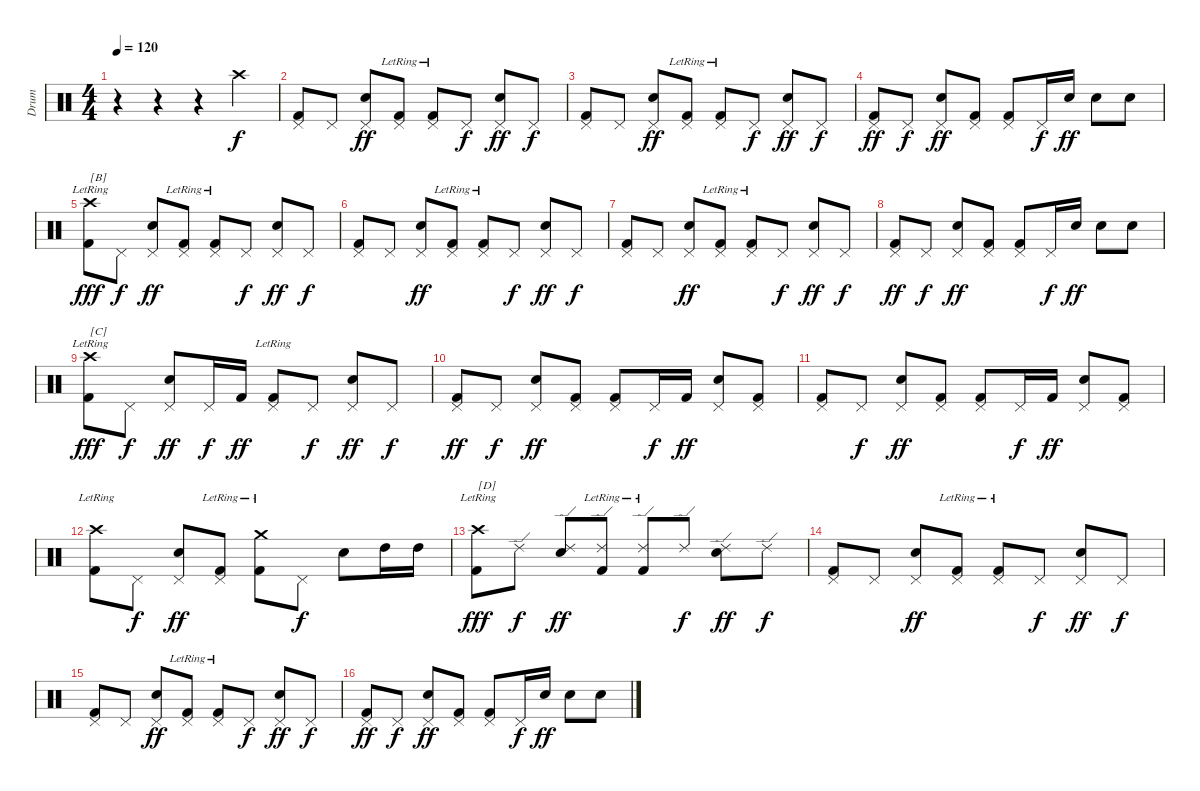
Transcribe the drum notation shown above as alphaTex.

\track ("Drum" "Drum") {instrument percussion}
\staff {score}
\articulation defaults
\ts (4 4)
\tempo 120
\clef neutral
\ks c
r.4{dy f} r.4 r.4 "Crash high (hit)".4 |
("Pedal Hi-Hat (hit)" "Kick (hit) 2").8 "Pedal Hi-Hat (hit)".8 ("Pedal Hi-Hat (hit)" "Snare (hit) 2").8{dy ff} ("Pedal Hi-Hat (hit)" "Kick (hit) 2"{lr}).8 ("Pedal Hi-Hat (hit)" "Kick (hit) 2"{lr}).8 "Pedal Hi-Hat (hit)".8{dy f} ("Pedal Hi-Hat (hit)" "Snare (hit) 2").8{dy ff} "Pedal Hi-Hat (hit)".8{dy f} |
("Pedal Hi-Hat (hit)" "Kick (hit) 2").8 "Pedal Hi-Hat (hit)".8 ("Pedal Hi-Hat (hit)" "Snare (hit) 2").8{dy ff} ("Pedal Hi-Hat (hit)" "Kick (hit) 2"{lr}).8 ("Pedal Hi-Hat (hit)" "Kick (hit) 2"{lr}).8 "Pedal Hi-Hat (hit)".8{dy f} ("Pedal Hi-Hat (hit)" "Snare (hit) 2").8{dy ff} "Pedal Hi-Hat (hit)".8{dy f} |
("Pedal Hi-Hat (hit)" "Kick (hit) 2").8{dy ff} "Pedal Hi-Hat (hit)".8{dy f} ("Pedal Hi-Hat (hit)" "Snare (hit) 2").8{dy ff} ("Pedal Hi-Hat (hit)" "Kick (hit) 2").8 ("Pedal Hi-Hat (hit)" "Kick (hit) 2").8 "Pedal Hi-Hat (hit)".16{dy f} "Snare (hit) 2".16{dy ff} "Snare (hit) 2".8 "Snare (hit) 2".8 |
("Crash high (hit)"{lr} "Kick (hit) 2"{lr}).8{txt "[B]" dy fff} "Pedal Hi-Hat (hit)".8{dy f} ("Pedal Hi-Hat (hit)" "Snare (hit) 2").8{dy ff} ("Pedal Hi-Hat (hit)" "Kick (hit) 2"{lr}).8 ("Pedal Hi-Hat (hit)" "Kick (hit) 2"{lr}).8 "Pedal Hi-Hat (hit)".8{dy f} ("Pedal Hi-Hat (hit)" "Snare (hit) 2").8{dy ff} "Pedal Hi-Hat (hit)".8{dy f} |
("Pedal Hi-Hat (hit)" "Kick (hit) 2").8 "Pedal Hi-Hat (hit)".8 ("Pedal Hi-Hat (hit)" "Snare (hit) 2").8{dy ff} ("Pedal Hi-Hat (hit)" "Kick (hit) 2"{lr}).8 ("Pedal Hi-Hat (hit)" "Kick (hit) 2"{lr}).8 "Pedal Hi-Hat (hit)".8{dy f} ("Pedal Hi-Hat (hit)" "Snare (hit) 2").8{dy ff} "Pedal Hi-Hat (hit)".8{dy f} |
("Pedal Hi-Hat (hit)" "Kick (hit) 2").8 "Pedal Hi-Hat (hit)".8 ("Pedal Hi-Hat (hit)" "Snare (hit) 2").8{dy ff} ("Pedal Hi-Hat (hit)" "Kick (hit) 2"{lr}).8 ("Pedal Hi-Hat (hit)" "Kick (hit) 2"{lr}).8 "Pedal Hi-Hat (hit)".8{dy f} ("Pedal Hi-Hat (hit)" "Snare (hit) 2").8{dy ff} "Pedal Hi-Hat (hit)".8{dy f} |
("Pedal Hi-Hat (hit)" "Kick (hit) 2").8{dy ff} "Pedal Hi-Hat (hit)".8{dy f} ("Pedal Hi-Hat (hit)" "Snare (hit) 2").8{dy ff} ("Pedal Hi-Hat (hit)" "Kick (hit) 2").8 ("Pedal Hi-Hat (hit)" "Kick (hit) 2").8 "Pedal Hi-Hat (hit)".16{dy f} "Snare (hit) 2".16{dy ff} "Snare (hit) 2".8 "Snare (hit) 2".8 |
("Crash high (hit)"{lr} "Kick (hit) 2"{lr}).8{txt "[C]" dy fff} "Pedal Hi-Hat (hit)".8{dy f} ("Pedal Hi-Hat (hit)" "Snare (hit) 2").8{dy ff} "Pedal Hi-Hat (hit)".16{dy f} "Kick (hit) 2".16{dy ff} ("Pedal Hi-Hat (hit)" "Kick (hit) 2"{lr}).8 "Pedal Hi-Hat (hit)".8{dy f} ("Pedal Hi-Hat (hit)" "Snare (hit) 2").8{dy ff} "Pedal Hi-Hat (hit)".8{dy f} |
("Pedal Hi-Hat (hit)" "Kick (hit) 2").8{dy ff} "Pedal Hi-Hat (hit)".8{dy f} ("Pedal Hi-Hat (hit)" "Snare (hit) 2").8{dy ff} ("Pedal Hi-Hat (hit)" "Kick (hit) 2").8 ("Pedal Hi-Hat (hit)" "Kick (hit) 2").8 "Pedal Hi-Hat (hit)".16{dy f} "Kick (hit) 2".16{dy ff} ("Pedal Hi-Hat (hit)" "Snare (hit) 2").8 ("Pedal Hi-Hat (hit)" "Kick (hit) 2").8 |
("Pedal Hi-Hat (hit)" "Kick (hit) 2").8 "Pedal Hi-Hat (hit)".8{dy f} ("Pedal Hi-Hat (hit)" "Snare (hit) 2").8{dy ff} ("Pedal Hi-Hat (hit)" "Kick (hit) 2").8 ("Pedal Hi-Hat (hit)" "Kick (hit) 2").8 "Pedal Hi-Hat (hit)".16{dy f} "Kick (hit) 2".16{dy ff} ("Pedal Hi-Hat (hit)" "Snare (hit) 2").8 ("Pedal Hi-Hat (hit)" "Kick (hit) 2").8 |
("Crash high (hit)" "Kick (hit) 2"{lr}).8 "Pedal Hi-Hat (hit)".8{dy f} ("Pedal Hi-Hat (hit)" "Snare (hit) 2").8{dy ff} ("Pedal Hi-Hat (hit)" "Kick (hit) 2"{lr}).8 ("Crash medium (hit)" "Kick (hit) 2"{lr}).8 "Pedal Hi-Hat (hit)".8{dy f} "Snare (hit) 2".8 "High Tom (hit)".16 "High Tom (hit)".16 |
("Crash high (hit)"{lr} "Kick (hit) 2"{lr}).8{txt "[D]" dy fff} "Ride (edge) 2".8{dy f} ("Ride (edge) 2" "Snare (hit) 2").8{dy ff} ("Ride (edge) 2" "Kick (hit) 2"{lr}).8 ("Ride (edge) 2" "Kick (hit) 2"{lr}).8 "Ride (edge) 2".8{dy f} ("Ride (edge) 2" "Snare (hit) 2").8{dy ff} "Ride (edge) 2".8{dy f} |
("Pedal Hi-Hat (hit)" "Kick (hit) 2").8 "Pedal Hi-Hat (hit)".8 ("Pedal Hi-Hat (hit)" "Snare (hit) 2").8{dy ff} ("Pedal Hi-Hat (hit)" "Kick (hit) 2"{lr}).8 ("Pedal Hi-Hat (hit)" "Kick (hit) 2"{lr}).8 "Pedal Hi-Hat (hit)".8{dy f} ("Pedal Hi-Hat (hit)" "Snare (hit) 2").8{dy ff} "Pedal Hi-Hat (hit)".8{dy f} |
("Pedal Hi-Hat (hit)" "Kick (hit) 2").8 "Pedal Hi-Hat (hit)".8 ("Pedal Hi-Hat (hit)" "Snare (hit) 2").8{dy ff} ("Pedal Hi-Hat (hit)" "Kick (hit) 2"{lr}).8 ("Pedal Hi-Hat (hit)" "Kick (hit) 2"{lr}).8 "Pedal Hi-Hat (hit)".8{dy f} ("Pedal Hi-Hat (hit)" "Snare (hit) 2").8{dy ff} "Pedal Hi-Hat (hit)".8{dy f} |
("Pedal Hi-Hat (hit)" "Kick (hit) 2").8{dy ff} "Pedal Hi-Hat (hit)".8{dy f} ("Pedal Hi-Hat (hit)" "Snare (hit) 2").8{dy ff} ("Pedal Hi-Hat (hit)" "Kick (hit) 2").8 ("Pedal Hi-Hat (hit)" "Kick (hit) 2").8 "Pedal Hi-Hat (hit)".16{dy f} "Snare (hit) 2".16{dy ff} "Snare (hit) 2".8 "Snare (hit) 2".8
